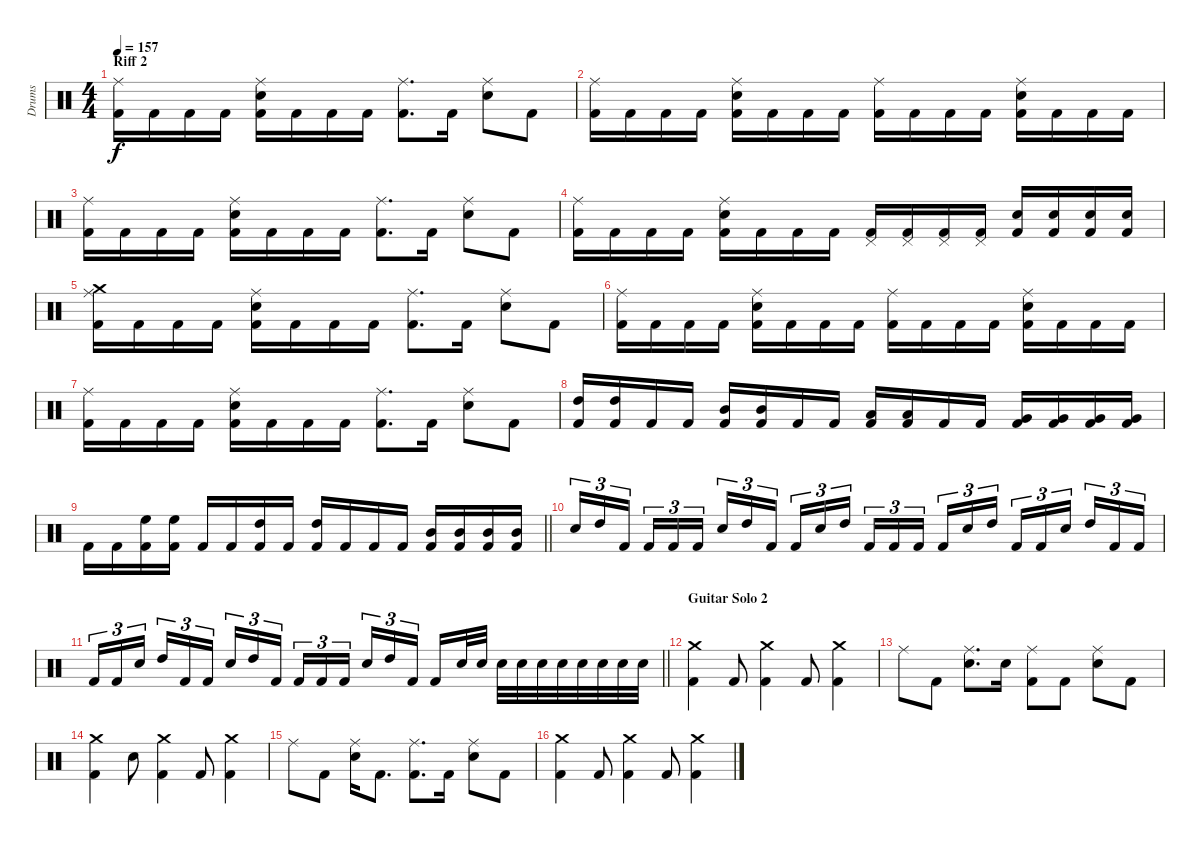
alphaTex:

\track ("Drums" "Drums") {instrument percussion}
\staff {score}
\articulation defaults
\ts (4 4)
\section ("" "Riff 2")
\tempo 157
\clef neutral
\ks c
("Ride (middle)" "Kick (hit) 2").16{dy f} "Kick (hit) 2".16 "Kick (hit) 2".16 "Kick (hit) 2".16 ("Ride (middle)" "Electric Snare (hit)" "Kick (hit) 2").16 "Kick (hit) 2".16 "Kick (hit) 2".16 "Kick (hit) 2".16 ("Ride (middle)" "Kick (hit) 2").8{d} "Kick (hit) 2".16 ("Ride (middle)" "Electric Snare (hit)").8 "Kick (hit) 2".8 |
("Ride (middle)" "Kick (hit) 2").16 "Kick (hit) 2".16 "Kick (hit) 2".16 "Kick (hit) 2".16 ("Ride (middle)" "Electric Snare (hit)" "Kick (hit) 2").16 "Kick (hit) 2".16 "Kick (hit) 2".16 "Kick (hit) 2".16 ("Ride (middle)" "Kick (hit) 2").16 "Kick (hit) 2".16 "Kick (hit) 2".16 "Kick (hit) 2".16 ("Ride (middle)" "Electric Snare (hit)" "Kick (hit) 2").16 "Kick (hit) 2".16 "Kick (hit) 2".16 "Kick (hit) 2".16 |
("Ride (middle)" "Kick (hit) 2").16 "Kick (hit) 2".16 "Kick (hit) 2".16 "Kick (hit) 2".16 ("Ride (middle)" "Electric Snare (hit)" "Kick (hit) 2").16 "Kick (hit) 2".16 "Kick (hit) 2".16 "Kick (hit) 2".16 ("Ride (middle)" "Kick (hit) 2").8{d} "Kick (hit) 2".16 ("Ride (middle)" "Electric Snare (hit)").8 "Kick (hit) 2".8 |
("Ride (middle)" "Kick (hit) 2").16 "Kick (hit) 2".16 "Kick (hit) 2".16 "Kick (hit) 2".16 ("Ride (middle)" "Electric Snare (hit)" "Kick (hit) 2").16 "Kick (hit) 2".16 "Kick (hit) 2".16 "Kick (hit) 2".16 ("Pedal Hi-Hat (hit)" "Kick (hit) 2").16 ("Pedal Hi-Hat (hit)" "Kick (hit) 2").16 ("Pedal Hi-Hat (hit)" "Kick (hit) 2").16 ("Pedal Hi-Hat (hit)" "Kick (hit) 2").16 ("Electric Snare (hit)" "Kick (hit) 2").16 ("Electric Snare (hit)" "Kick (hit) 2").16 ("Electric Snare (hit)" "Kick (hit) 2").16 ("Electric Snare (hit)" "Kick (hit) 2").16 |
("Ride (middle)" "Crash medium (hit)" "Kick (hit) 2").16 "Kick (hit) 2".16 "Kick (hit) 2".16 "Kick (hit) 2".16 ("Ride (middle)" "Electric Snare (hit)" "Kick (hit) 2").16 "Kick (hit) 2".16 "Kick (hit) 2".16 "Kick (hit) 2".16 ("Ride (middle)" "Kick (hit) 2").8{d} "Kick (hit) 2".16 ("Ride (middle)" "Electric Snare (hit)").8 "Kick (hit) 2".8 |
("Ride (middle)" "Kick (hit) 2").16 "Kick (hit) 2".16 "Kick (hit) 2".16 "Kick (hit) 2".16 ("Ride (middle)" "Electric Snare (hit)" "Kick (hit) 2").16 "Kick (hit) 2".16 "Kick (hit) 2".16 "Kick (hit) 2".16 ("Ride (middle)" "Kick (hit) 2").16 "Kick (hit) 2".16 "Kick (hit) 2".16 "Kick (hit) 2".16 ("Ride (middle)" "Electric Snare (hit)" "Kick (hit) 2").16 "Kick (hit) 2".16 "Kick (hit) 2".16 "Kick (hit) 2".16 |
("Ride (middle)" "Kick (hit) 2").16 "Kick (hit) 2".16 "Kick (hit) 2".16 "Kick (hit) 2".16 ("Ride (middle)" "Electric Snare (hit)" "Kick (hit) 2").16 "Kick (hit) 2".16 "Kick (hit) 2".16 "Kick (hit) 2".16 ("Ride (middle)" "Kick (hit) 2").8{d} "Kick (hit) 2".16 ("Ride (middle)" "Electric Snare (hit)").8 "Kick (hit) 2".8 |
("High Tom (hit)" "Kick (hit) 2").16 ("High Tom (hit)" "Kick (hit) 2").16 "Kick (hit) 2".16 "Kick (hit) 2".16 ("Mid Tom (hit)" "Kick (hit) 2").16 ("Mid Tom (hit)" "Kick (hit) 2").16 "Kick (hit) 2".16 "Kick (hit) 2".16 ("Low Tom (hit)" "Kick (hit) 2").16 ("Low Tom (hit)" "Kick (hit) 2").16 "Kick (hit) 2".16 "Kick (hit) 2".16 ("Very Low Tom (hit)" "Kick (hit) 2").16 ("Very Low Tom (hit)" "Kick (hit) 2").16 ("Very Low Tom (hit)" "Kick (hit) 2").16 ("Very Low Tom (hit)" "Kick (hit) 2").16 |
\barLineRight lightlight "Kick (hit) 2".16 "Kick (hit) 2".16
("High Floor Tom (hit)" "Kick (hit) 2").16 ("High Floor Tom (hit)" "Kick (hit) 2").16 "Kick (hit) 2".16 "Kick (hit) 2".16 ("High Tom (hit)" "Kick (hit) 2").16 "Kick (hit) 2".16 ("High Tom (hit)" "Kick (hit) 2").16 "Kick (hit) 2".16 "Kick (hit) 2".16 "Kick (hit) 2".16 ("Mid Tom (hit)" "Kick (hit) 2").16 ("Mid Tom (hit)" "Kick (hit) 2").16 ("Mid Tom (hit)" "Kick (hit) 2").16 ("Mid Tom (hit)" "Kick (hit) 2").16 |
"Electric Snare (hit)".16{tu (3 2)} "High Tom (hit)".16{tu (3 2)} "Kick (hit) 2".16{tu (3 2) beam splitsecondary} "Kick (hit) 2".16{tu (3 2)} "Kick (hit) 2".16{tu (3 2)} "Kick (hit) 2".16{tu (3 2)} "Electric Snare (hit)".16{tu (3 2)} "High Tom (hit)".16{tu (3 2)} "Kick (hit) 2".16{tu (3 2) beam splitsecondary} "Kick (hit) 2".16{tu (3 2)} "Electric Snare (hit)".16{tu (3 2)} "High Tom (hit)".16{tu (3 2)} "Kick (hit) 2".16{tu (3 2)} "Kick (hit) 2".16{tu (3 2)} "Kick (hit) 2".16{tu (3 2) beam splitsecondary} "Kick (hit) 2".16{tu (3 2)} "Electric Snare (hit)".16{tu (3 2)} "High Tom (hit)".16{tu (3 2)} "Kick (hit) 2".16{tu (3 2)} "Kick (hit) 2".16{tu (3 2)} "Electric Snare (hit)".16{tu (3 2) beam splitsecondary} "High Tom (hit)".16{tu (3 2)} "Kick (hit) 2".16{tu (3 2)} "Kick (hit) 2".16{tu (3 2)} |
\barLineRight lightlight "Kick (hit) 2".16{tu (3 2)} "Kick (hit) 2".16{tu (3 2)} "Electric Snare (hit)".16{tu (3 2) beam splitsecondary} "High Tom (hit)".16{tu (3 2)} "Kick (hit) 2".16{tu (3 2)} "Kick (hit) 2".16{tu (3 2)} "Electric Snare (hit)".16{tu (3 2)} "High Tom (hit)".16{tu (3 2)} "Kick (hit) 2".16{tu (3 2) beam splitsecondary} "Kick (hit) 2".16{tu (3 2)} "Kick (hit) 2".16{tu (3 2)} "Kick (hit) 2".16{tu (3 2)} "Electric Snare (hit)".16{tu (3 2)} "High Tom (hit)".16{tu (3 2)} "Kick (hit) 2".16{tu (3 2) beam splitsecondary} "Kick (hit) 2".16 "Electric Snare (hit)".32 "Electric Snare (hit)".32 "Electric Snare (hit)".32 "Electric Snare (hit)".32 "Electric Snare (hit)".32 "Electric Snare (hit)".32 "Electric Snare (hit)".32 "Electric Snare (hit)".32 "Electric Snare (hit)".32 "Electric Snare (hit)".32
|
\section ("" "Guitar Solo 2")
("Crash medium (hit)" "Kick (hit) 2").4 "Kick (hit) 2".8 ("Crash medium (hit)" "Kick (hit) 2").4 "Kick (hit) 2".8 ("Crash medium (hit)" "Kick (hit) 2").4 |
"Ride (middle)".8 "Kick (hit) 2".8 ("Ride (middle)" "Electric Snare (hit)").8{d} "Electric Snare (hit)".16 ("Ride (middle)" "Kick (hit) 2").8 "Kick (hit) 2".8 ("Ride (middle)" "Electric Snare (hit)").8 "Kick (hit) 2".8 |
("Crash medium (hit)" "Kick (hit) 2").4 "Electric Snare (hit)".8 ("Crash medium (hit)" "Kick (hit) 2").4 "Kick (hit) 2".8 ("Crash medium (hit)" "Kick (hit) 2").4 |
"Ride (middle)".8 "Kick (hit) 2".8 ("Ride (middle)" "Electric Snare (hit)").16 "Kick (hit) 2".8{d} ("Ride (middle)" "Kick (hit) 2").8{d} "Kick (hit) 2".16 ("Ride (middle)" "Electric Snare (hit)").8 "Kick (hit) 2".8 |
("Crash medium (hit)" "Kick (hit) 2").4 "Kick (hit) 2".8 ("Crash medium (hit)" "Kick (hit) 2").4 "Kick (hit) 2".8 ("Crash medium (hit)" "Kick (hit) 2").4
